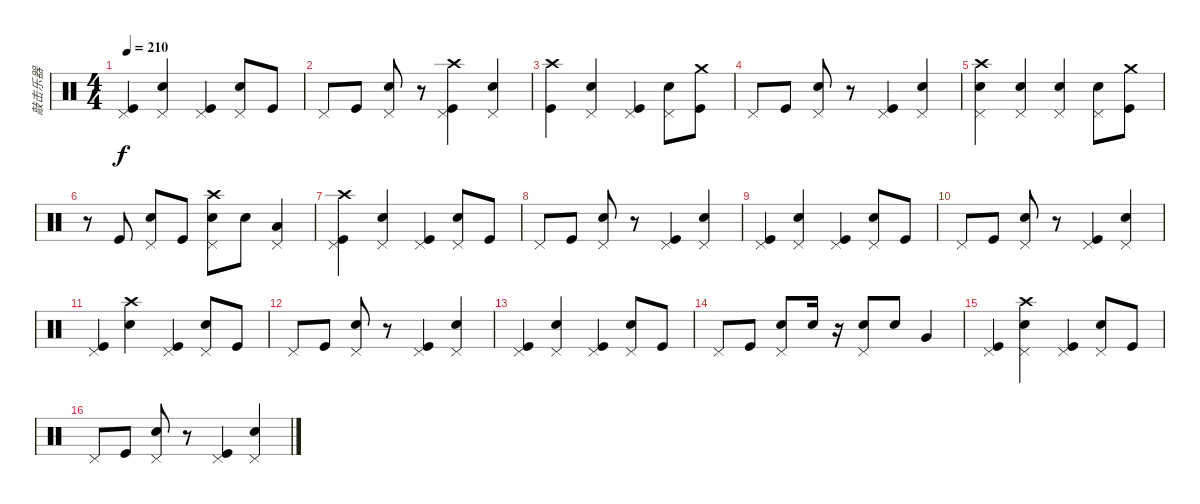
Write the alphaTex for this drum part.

\track ("敲击乐器" "敲击乐器") {instrument percussion}
\staff {score}
\articulation defaults
\ts (4 4)
\tempo 210
\clef neutral
\ks c
("Pedal Hi-Hat (hit)" "Kick (hit)").4{dy f} ("Pedal Hi-Hat (hit)" "Snare (hit) 2").4 ("Pedal Hi-Hat (hit)" "Kick (hit)").4 ("Pedal Hi-Hat (hit)" "Snare (hit) 2").8 "Kick (hit)".8 |
"Pedal Hi-Hat (hit)".8 "Kick (hit)".8 ("Pedal Hi-Hat (hit)" "Snare (hit) 2").8 r.8 ("Kick (hit)" "Pedal Hi-Hat (hit)" "Crash high (hit)").4 ("Snare (hit) 2" "Pedal Hi-Hat (hit)").4 |
("Crash high (hit)" "Kick (hit)").4 ("Pedal Hi-Hat (hit)" "Snare (hit) 2").4 ("Pedal Hi-Hat (hit)" "Kick (hit)").4 ("Pedal Hi-Hat (hit)" "Snare (hit) 2").8 ("Crash medium (hit)" "Kick (hit)").8 |
"Pedal Hi-Hat (hit)".8 "Kick (hit)".8 ("Pedal Hi-Hat (hit)" "Snare (hit) 2").8 r.8 ("Kick (hit)" "Pedal Hi-Hat (hit)").4 ("Snare (hit) 2" "Pedal Hi-Hat (hit)").4 |
("Snare (hit) 2" "Pedal Hi-Hat (hit)" "Crash high (hit)").4 ("Pedal Hi-Hat (hit)" "Snare (hit) 2").4 ("Pedal Hi-Hat (hit)" "Snare (hit) 2").4 ("Pedal Hi-Hat (hit)" "Snare (hit) 2").8 ("Crash medium (hit)" "Kick (hit)").8 |
r.8 "Kick (hit)".8 ("Pedal Hi-Hat (hit)" "Snare (hit) 2").8 "Kick (hit)".8 ("Crash high (hit)" "Pedal Hi-Hat (hit)" "Snare (hit) 2").8 "Snare (hit) 2".8 ("Low Floor Tom (hit)" "Pedal Hi-Hat (hit)").4 |
("Crash high (hit)" "Pedal Hi-Hat (hit)" "Kick (hit)").4 ("Pedal Hi-Hat (hit)" "Snare (hit) 2").4 ("Pedal Hi-Hat (hit)" "Kick (hit)").4 ("Pedal Hi-Hat (hit)" "Snare (hit) 2").8 "Kick (hit)".8 |
"Pedal Hi-Hat (hit)".8 "Kick (hit)".8 ("Pedal Hi-Hat (hit)" "Snare (hit) 2").8 r.8 ("Kick (hit)" "Pedal Hi-Hat (hit)").4 ("Snare (hit) 2" "Pedal Hi-Hat (hit)").4 |
("Pedal Hi-Hat (hit)" "Kick (hit)").4 ("Pedal Hi-Hat (hit)" "Snare (hit) 2").4 ("Pedal Hi-Hat (hit)" "Kick (hit)").4 ("Pedal Hi-Hat (hit)" "Snare (hit) 2").8 "Kick (hit)".8 |
"Pedal Hi-Hat (hit)".8 "Kick (hit)".8 ("Pedal Hi-Hat (hit)" "Snare (hit) 2").8 r.8 ("Kick (hit)" "Pedal Hi-Hat (hit)").4 ("Snare (hit) 2" "Pedal Hi-Hat (hit)").4 |
("Pedal Hi-Hat (hit)" "Kick (hit)").4 ("Crash high (hit)" "Snare (hit) 2").4 ("Pedal Hi-Hat (hit)" "Kick (hit)").4 ("Pedal Hi-Hat (hit)" "Snare (hit) 2").8 "Kick (hit)".8 |
"Pedal Hi-Hat (hit)".8 "Kick (hit)".8 ("Pedal Hi-Hat (hit)" "Snare (hit) 2").8 r.8 ("Kick (hit)" "Pedal Hi-Hat (hit)").4 ("Snare (hit) 2" "Pedal Hi-Hat (hit)").4 |
("Pedal Hi-Hat (hit)" "Kick (hit)").4 ("Pedal Hi-Hat (hit)" "Snare (hit) 2").4 ("Pedal Hi-Hat (hit)" "Kick (hit)").4 ("Pedal Hi-Hat (hit)" "Snare (hit) 2").8 "Kick (hit)".8 |
"Pedal Hi-Hat (hit)".8 "Kick (hit)".8 ("Pedal Hi-Hat (hit)" "Snare (hit) 2").8 "Snare (hit) 2".16 r.16 ("Pedal Hi-Hat (hit)" "Snare (hit) 2").8 "Snare (hit) 2".8 "Very Low Tom (hit)".4 |
("Pedal Hi-Hat (hit)" "Kick (hit)").4 ("Crash high (hit)" "Pedal Hi-Hat (hit)" "Snare (hit) 2").4 ("Pedal Hi-Hat (hit)" "Kick (hit)").4 ("Pedal Hi-Hat (hit)" "Snare (hit) 2").8 "Kick (hit)".8 |
"Pedal Hi-Hat (hit)".8 "Kick (hit)".8 ("Pedal Hi-Hat (hit)" "Snare (hit) 2").8 r.8 ("Kick (hit)" "Pedal Hi-Hat (hit)").4 ("Snare (hit) 2" "Pedal Hi-Hat (hit)").4
